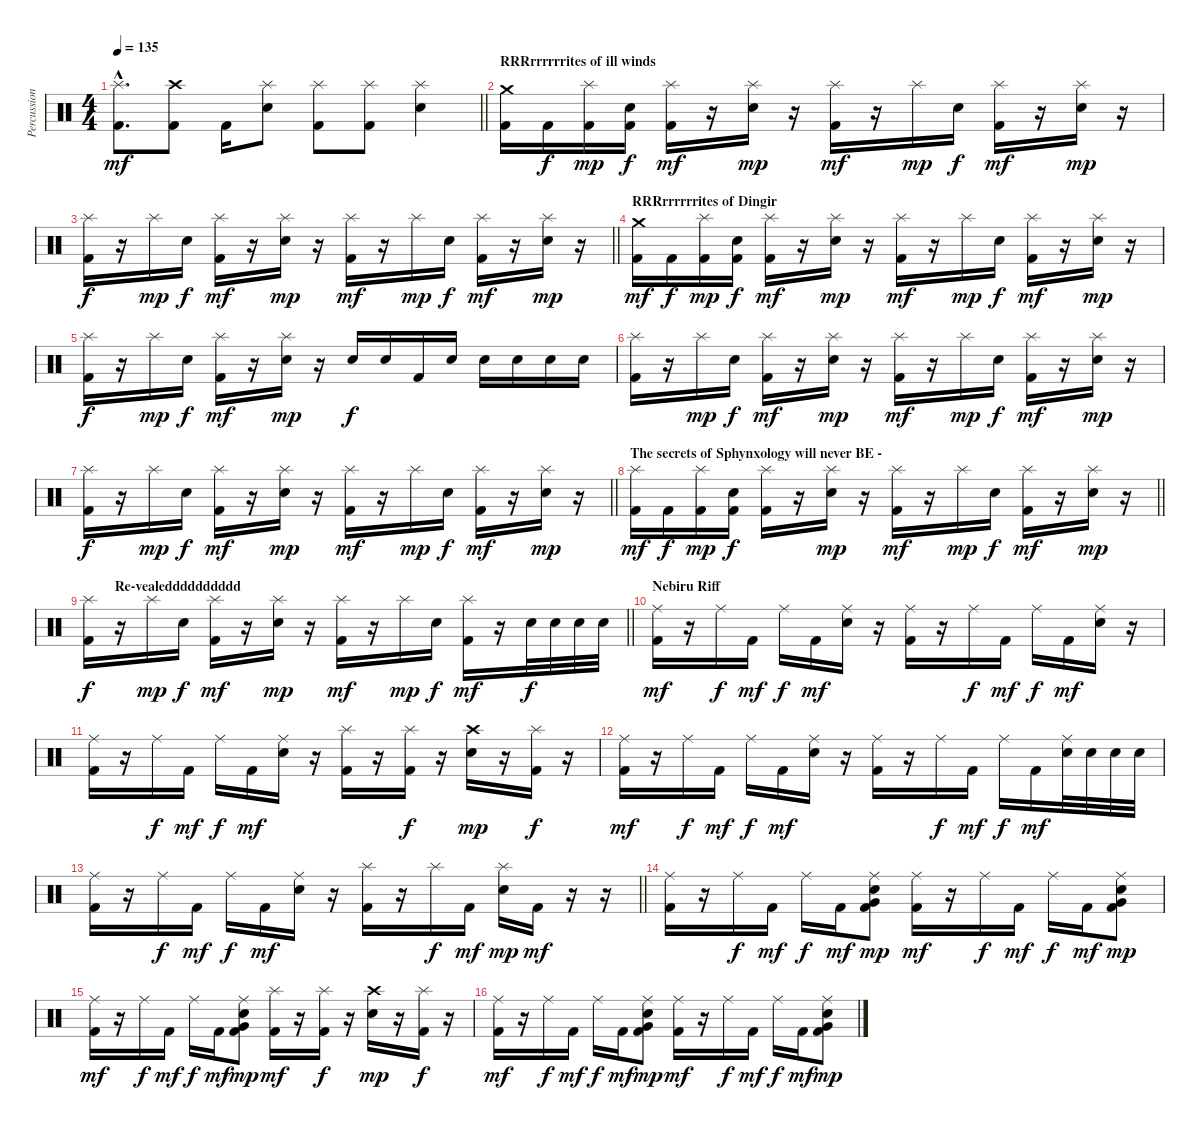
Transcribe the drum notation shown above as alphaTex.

\track ("Percussion" "Percussion") {instrument percussion}
\staff {score}
\articulation defaults
\ts (4 4)
\tempo 135
\clef neutral
\barLineRight lightlight
\ks c
("Splash (hit)"{hac} "Kick (hit) 2"{hac}).8{d dy mf} ("Crash high (hit)" "Kick (hit) 2").8 "Kick (hit) 2".16 ("Splash (hit)" "Electric Snare (hit)").8 ("Splash (hit)" "Kick (hit) 2").8 ("Splash (hit)" "Kick (hit) 2").8 ("Splash (hit)" "Electric Snare (hit)").4 |
\section ("" "RRRrrrrrrites of ill winds")
("Crash medium (hit)" "Kick (hit) 2").16 "Kick (hit) 2".16{dy f} ("Splash (hit)" "Kick (hit) 2").16{dy mp} ("Electric Snare (hit)" "Kick (hit) 2").16{dy f} ("Splash (hit)" "Kick (hit) 2").16{dy mf} r.16 ("Splash (hit)" "Electric Snare (hit)").16{dy mp} r.16 ("Splash (hit)" "Kick (hit) 2").16{dy mf} r.16 "Splash (hit)".16{dy mp} "Electric Snare (hit)".16{dy f} ("Splash (hit)" "Kick (hit) 2").16{dy mf} r.16 ("Splash (hit)" "Electric Snare (hit)").16{dy mp} r.16 |
\barLineRight lightlight
("Splash (hit)" "Kick (hit) 2").16{dy f} r.16 "Splash (hit)".16{dy mp} "Electric Snare (hit)".16{dy f} ("Splash (hit)" "Kick (hit) 2").16{dy mf} r.16 ("Splash (hit)" "Electric Snare (hit)").16{dy mp} r.16 ("Splash (hit)" "Kick (hit) 2").16{dy mf} r.16 "Splash (hit)".16{dy mp} "Electric Snare (hit)".16{dy f} ("Splash (hit)" "Kick (hit) 2").16{dy mf} r.16 ("Splash (hit)" "Electric Snare (hit)").16{dy mp} r.16 |
\section ("" "RRRrrrrrrites of Dingir")
("Crash medium (hit)" "Kick (hit) 2").16{dy mf} "Kick (hit) 2".16{dy f} ("Splash (hit)" "Kick (hit) 2").16{dy mp} ("Electric Snare (hit)" "Kick (hit) 2").16{dy f} ("Splash (hit)" "Kick (hit) 2").16{dy mf} r.16 ("Splash (hit)" "Electric Snare (hit)").16{dy mp} r.16 ("Splash (hit)" "Kick (hit) 2").16{dy mf} r.16 "Splash (hit)".16{dy mp} "Electric Snare (hit)".16{dy f} ("Splash (hit)" "Kick (hit) 2").16{dy mf} r.16 ("Splash (hit)" "Electric Snare (hit)").16{dy mp} r.16 |
("Splash (hit)" "Kick (hit) 2").16{dy f} r.16 "Splash (hit)".16{dy mp} "Electric Snare (hit)".16{dy f} ("Splash (hit)" "Kick (hit) 2").16{dy mf} r.16 ("Splash (hit)" "Electric Snare (hit)").16{dy mp} r.16 "Electric Snare (hit)".16{dy f} "Electric Snare (hit)".16 "Kick (hit) 2".16 "Electric Snare (hit)".16 "Electric Snare (hit)".16 "Electric Snare (hit)".16 "Electric Snare (hit)".16 "Electric Snare (hit)".16 |
("Splash (hit)" "Kick (hit) 2").16 r.16 "Splash (hit)".16{dy mp} "Electric Snare (hit)".16{dy f} ("Splash (hit)" "Kick (hit) 2").16{dy mf} r.16 ("Splash (hit)" "Electric Snare (hit)").16{dy mp} r.16 ("Splash (hit)" "Kick (hit) 2").16{dy mf} r.16 "Splash (hit)".16{dy mp} "Electric Snare (hit)".16{dy f} ("Splash (hit)" "Kick (hit) 2").16{dy mf} r.16 ("Splash (hit)" "Electric Snare (hit)").16{dy mp} r.16 |
\barLineRight lightlight
("Splash (hit)" "Kick (hit) 2").16{dy f} r.16 "Splash (hit)".16{dy mp} "Electric Snare (hit)".16{dy f} ("Splash (hit)" "Kick (hit) 2").16{dy mf} r.16 ("Splash (hit)" "Electric Snare (hit)").16{dy mp} r.16 ("Splash (hit)" "Kick (hit) 2").16{dy mf} r.16 "Splash (hit)".16{dy mp} "Electric Snare (hit)".16{dy f} ("Splash (hit)" "Kick (hit) 2").16{dy mf} r.16 ("Splash (hit)" "Electric Snare (hit)").16{dy mp} r.16 |
\section ("" "The secrets of Sphynxology will never BE -")
\barLineRight lightlight
("Splash (hit)" "Kick (hit) 2").16{dy mf} "Kick (hit) 2".16{dy f} ("Splash (hit)" "Kick (hit) 2").16{dy mp} ("Electric Snare (hit)" "Kick (hit) 2").16{dy f} ("Splash (hit)" "Kick (hit) 2").16 r.16 ("Splash (hit)" "Electric Snare (hit)").16{dy mp} r.16 ("Splash (hit)" "Kick (hit) 2").16{dy mf} r.16 "Splash (hit)".16{dy mp} "Electric Snare (hit)".16{dy f} ("Splash (hit)" "Kick (hit) 2").16{dy mf} r.16 ("Splash (hit)" "Electric Snare (hit)").16{dy mp} r.16 |
\section ("" "         Re-vealedddddddddd")
\barLineRight lightlight
("Splash (hit)" "Kick (hit) 2").16{dy f} r.16 "Splash (hit)".16{dy mp} "Electric Snare (hit)".16{dy f} ("Splash (hit)" "Kick (hit) 2").16{dy mf} r.16 ("Splash (hit)" "Electric Snare (hit)").16{dy mp} r.16 ("Splash (hit)" "Kick (hit) 2").16{dy mf} r.16 "Splash (hit)".16{dy mp} "Electric Snare (hit)".16{dy f} ("Splash (hit)" "Kick (hit) 2").16{dy mf} r.16 "Electric Snare (hit)".32{dy f} "Electric Snare (hit)".32 "Electric Snare (hit)".32 "Electric Snare (hit)".32 |
\section ("" "Nebiru Riff")
("Ride (middle)" "Kick (hit) 2").16{dy mf} r.16 "Ride (middle)".16{dy f} "Kick (hit) 2".16{dy mf} "Ride (middle)".16{dy f} "Kick (hit) 2".16{dy mf} ("Ride (middle)" "Electric Snare (hit)").16 r.16 ("Ride (middle)" "Kick (hit) 2").16 r.16 "Ride (middle)".16{dy f} "Kick (hit) 2".16{dy mf} "Ride (middle)".16{dy f} "Kick (hit) 2".16{dy mf} ("Ride (middle)" "Electric Snare (hit)").16 r.16 |
("Ride (middle)" "Kick (hit) 2").16 r.16 "Ride (middle)".16{dy f} "Kick (hit) 2".16{dy mf} "Ride (middle)".16{dy f} "Kick (hit) 2".16{dy mf} ("Ride (middle)" "Electric Snare (hit)").16 r.16 ("Splash (hit)" "Kick (hit) 2").16 r.16 ("Splash (hit)" "Kick (hit) 2").16{dy f} r.16 ("Crash high (hit)" "Electric Snare (hit)").16{dy mp} r.16 ("Splash (hit)" "Kick (hit) 2").16{dy f} r.16 |
("Ride (middle)" "Kick (hit) 2").16{dy mf} r.16 "Ride (middle)".16{dy f} "Kick (hit) 2".16{dy mf} "Ride (middle)".16{dy f} "Kick (hit) 2".16{dy mf} ("Ride (middle)" "Electric Snare (hit)").16 r.16 ("Ride (middle)" "Kick (hit) 2").16 r.16 "Ride (middle)".16{dy f} "Kick (hit) 2".16{dy mf} "Ride (middle)".16{dy f} "Kick (hit) 2".16{dy mf} ("Ride (middle)" "Electric Snare (hit)").32 "Electric Snare (hit)".32 "Electric Snare (hit)".32 "Electric Snare (hit)".32 |
\barLineRight lightlight
("Ride (middle)" "Kick (hit) 2").16 r.16 "Ride (middle)".16{dy f} "Kick (hit) 2".16{dy mf} "Ride (middle)".16{dy f} "Kick (hit) 2".16{dy mf} ("Ride (middle)" "Electric Snare (hit)").16 r.16 ("Splash (hit)" "Kick (hit) 2").16 r.16 "Splash (hit)".16{dy f} "Kick (hit) 2".16{dy mf} ("Splash (hit)" "Electric Snare (hit)").16{dy mp} "Kick (hit) 2".16{dy mf} r.16 r.16 |
("Ride (middle)" "Kick (hit) 2").16 r.16 "Ride (middle)".16{dy f} "Kick (hit) 2".16{dy mf} "Ride (middle)".16{dy f} "Kick (hit) 2".16{dy mf} ("Ride (middle)" "Electric Snare (hit)" "Very Low Tom (hit)" "Kick (hit) 2").8{dy mp} ("Ride (middle)" "Kick (hit) 2").16{dy mf} r.16 "Ride (middle)".16{dy f} "Kick (hit) 2".16{dy mf} "Ride (middle)".16{dy f} "Kick (hit) 2".16{dy mf} ("Ride (middle)" "Electric Snare (hit)" "Very Low Tom (hit)" "Kick (hit) 2").8{dy mp} |
("Ride (middle)" "Kick (hit) 2").16{dy mf} r.16 "Ride (middle)".16{dy f} "Kick (hit) 2".16{dy mf} "Ride (middle)".16{dy f} "Kick (hit) 2".16{dy mf} ("Ride (middle)" "Electric Snare (hit)" "Very Low Tom (hit)" "Kick (hit) 2").8{dy mp} ("Splash (hit)" "Kick (hit) 2").16{dy mf} r.16 ("Splash (hit)" "Kick (hit) 2").16{dy f} r.16 ("Crash high (hit)" "Electric Snare (hit)").16{dy mp} r.16 ("Splash (hit)" "Kick (hit) 2").16{dy f} r.16 |
("Ride (middle)" "Kick (hit) 2").16{dy mf} r.16 "Ride (middle)".16{dy f} "Kick (hit) 2".16{dy mf} "Ride (middle)".16{dy f} "Kick (hit) 2".16{dy mf} ("Ride (middle)" "Electric Snare (hit)" "Very Low Tom (hit)" "Kick (hit) 2").8{dy mp} ("Ride (middle)" "Kick (hit) 2").16{dy mf} r.16 "Ride (middle)".16{dy f} "Kick (hit) 2".16{dy mf} "Ride (middle)".16{dy f} "Kick (hit) 2".16{dy mf} ("Ride (middle)" "Electric Snare (hit)" "Very Low Tom (hit)" "Kick (hit) 2").8{dy mp}
